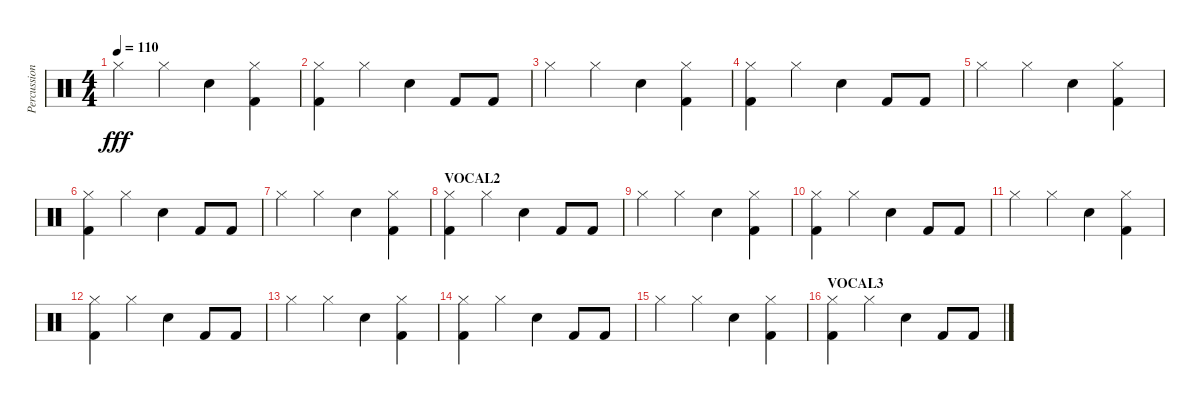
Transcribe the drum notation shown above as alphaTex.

\track ("Percussion" "Percussion") {instrument percussion}
\staff {score}
\articulation defaults
\ts (4 4)
\tempo 110
\clef neutral
\ks c "Hi-Hat (closed)".4{dy fff} "Hi-Hat (closed)".4 "Electric Snare (hit)".4
("Kick (hit) 2" "Hi-Hat (closed)").4 |
("Kick (hit) 2" "Hi-Hat (closed)").4 "Hi-Hat (closed)".4 "Electric Snare (hit)".4 "Kick (hit) 2".8 "Kick (hit) 2".8 |
"Hi-Hat (closed)".4 "Hi-Hat (closed)".4 "Electric Snare (hit)".4 ("Kick (hit) 2" "Hi-Hat (closed)").4 |
("Kick (hit) 2" "Hi-Hat (closed)").4 "Hi-Hat (closed)".4 "Electric Snare (hit)".4 "Kick (hit) 2".8 "Kick (hit) 2".8 |
"Hi-Hat (closed)".4 "Hi-Hat (closed)".4 "Electric Snare (hit)".4 ("Kick (hit) 2" "Hi-Hat (closed)").4 |
("Kick (hit) 2" "Hi-Hat (closed)").4 "Hi-Hat (closed)".4 "Electric Snare (hit)".4 "Kick (hit) 2".8 "Kick (hit) 2".8 |
"Hi-Hat (closed)".4 "Hi-Hat (closed)".4 "Electric Snare (hit)".4 ("Kick (hit) 2" "Hi-Hat (closed)").4 |
\section ("" "VOCAL2")
("Kick (hit) 2" "Hi-Hat (closed)").4 "Hi-Hat (closed)".4 "Electric Snare (hit)".4 "Kick (hit) 2".8 "Kick (hit) 2".8 |
"Hi-Hat (closed)".4 "Hi-Hat (closed)".4 "Electric Snare (hit)".4 ("Kick (hit) 2" "Hi-Hat (closed)").4 |
("Kick (hit) 2" "Hi-Hat (closed)").4 "Hi-Hat (closed)".4 "Electric Snare (hit)".4 "Kick (hit) 2".8 "Kick (hit) 2".8 |
"Hi-Hat (closed)".4 "Hi-Hat (closed)".4 "Electric Snare (hit)".4 ("Kick (hit) 2" "Hi-Hat (closed)").4 |
("Kick (hit) 2" "Hi-Hat (closed)").4 "Hi-Hat (closed)".4 "Electric Snare (hit)".4 "Kick (hit) 2".8 "Kick (hit) 2".8 |
"Hi-Hat (closed)".4 "Hi-Hat (closed)".4 "Electric Snare (hit)".4 ("Kick (hit) 2" "Hi-Hat (closed)").4 |
("Kick (hit) 2" "Hi-Hat (closed)").4 "Hi-Hat (closed)".4 "Electric Snare (hit)".4 "Kick (hit) 2".8 "Kick (hit) 2".8 |
"Hi-Hat (closed)".4 "Hi-Hat (closed)".4 "Electric Snare (hit)".4 ("Kick (hit) 2" "Hi-Hat (closed)").4 |
\section ("" "VOCAL3")
("Kick (hit) 2" "Hi-Hat (closed)").4 "Hi-Hat (closed)".4 "Electric Snare (hit)".4 "Kick (hit) 2".8 "Kick (hit) 2".8
